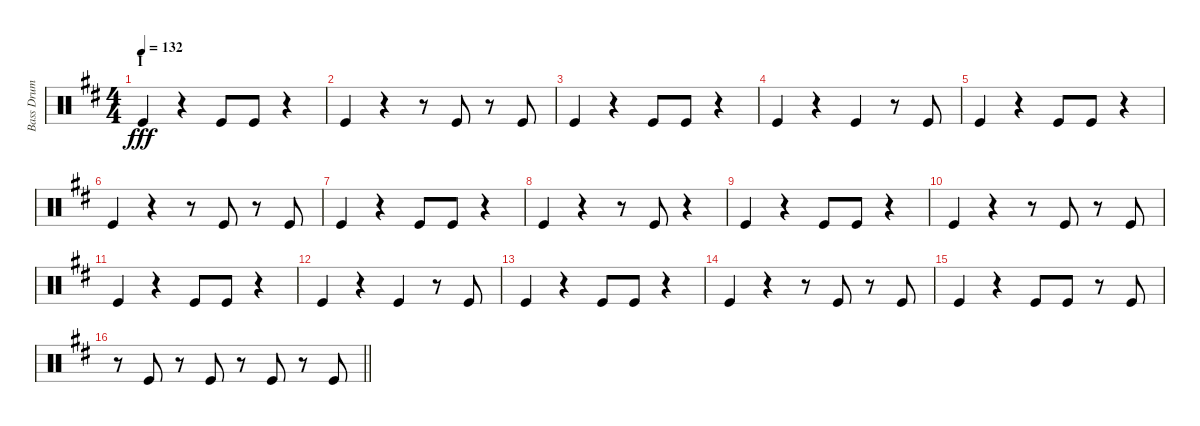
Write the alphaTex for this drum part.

\track ("Bass Drum" "Bass Drum") {instrument percussion}
\staff {score}
\articulation defaults
\ts (4 4)
\section ("" "I")
\tempo 132
\clef neutral
\ks d "Kick (hit)".4{dy fff}
r.4 "Kick (hit)".8 "Kick (hit)".8 r.4 |
"Kick (hit)".4 r.4 r.8 "Kick (hit)".8 r.8 "Kick (hit)".8 |
"Kick (hit)".4 r.4 "Kick (hit)".8 "Kick (hit)".8 r.4 |
"Kick (hit)".4 r.4 "Kick (hit)".4 r.8 "Kick (hit)".8 |
"Kick (hit)".4 r.4 "Kick (hit)".8 "Kick (hit)".8 r.4 |
"Kick (hit)".4 r.4 r.8 "Kick (hit)".8 r.8 "Kick (hit)".8 |
"Kick (hit)".4 r.4 "Kick (hit)".8 "Kick (hit)".8 r.4 |
"Kick (hit)".4 r.4 r.8 "Kick (hit)".8 r.4 |
"Kick (hit)".4 r.4 "Kick (hit)".8 "Kick (hit)".8 r.4 |
"Kick (hit)".4 r.4 r.8 "Kick (hit)".8 r.8 "Kick (hit)".8 |
"Kick (hit)".4 r.4 "Kick (hit)".8 "Kick (hit)".8 r.4 |
"Kick (hit)".4 r.4 "Kick (hit)".4 r.8 "Kick (hit)".8 |
"Kick (hit)".4 r.4 "Kick (hit)".8 "Kick (hit)".8 r.4 |
"Kick (hit)".4 r.4 r.8 "Kick (hit)".8 r.8 "Kick (hit)".8 |
"Kick (hit)".4 r.4 "Kick (hit)".8 "Kick (hit)".8 r.8 "Kick (hit)".8 |
\barLineRight lightlight
r.8 "Kick (hit)".8 r.8 "Kick (hit)".8 r.8 "Kick (hit)".8 r.8 "Kick (hit)".8
